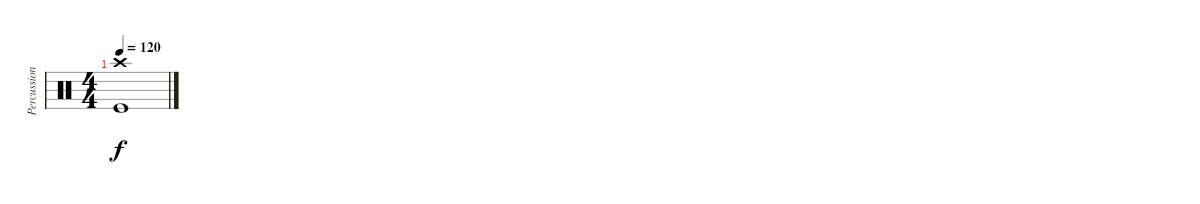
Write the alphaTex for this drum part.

\track ("Percussions" "Percussion") {instrument percussion}
\staff {score}
\articulation defaults
\ts (4 4)
\tempo 120
\clef neutral
\ks c
("Crash high (hit)" "Kick (hit)").1{dy f}
